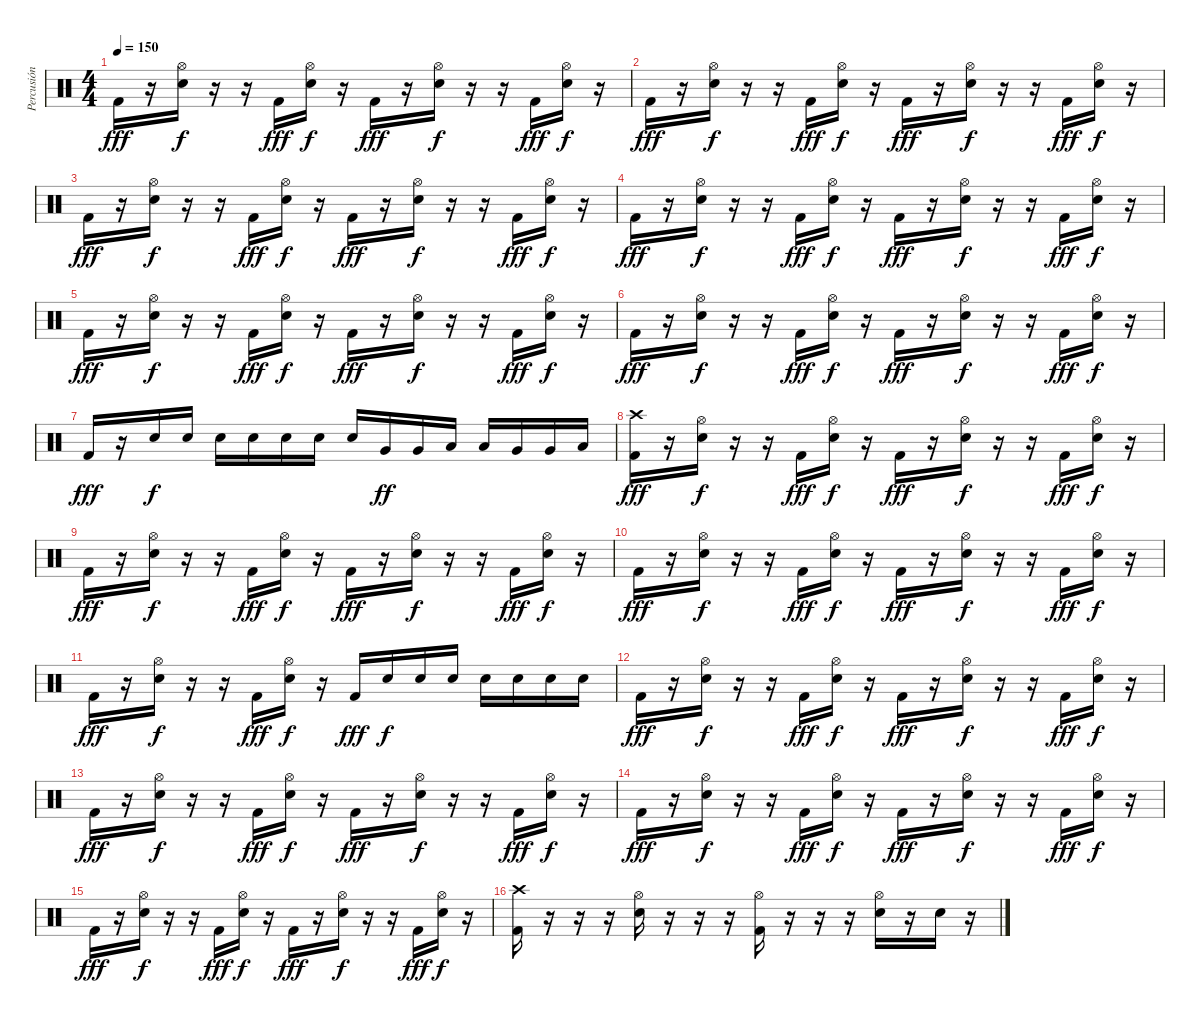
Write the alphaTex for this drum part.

\track ("Percusión" "Percusión") {instrument percussion}
\staff {score}
\articulation defaults
\ts (4 4)
\tempo 150
\clef neutral
\ks c "Kick (hit) 2".16{dy fff}
r.16 ("Electric Snare (hit)" "Hi-Hat (open)").16{dy f} r.16 r.16 "Kick (hit) 2".16{dy fff} ("Electric Snare (hit)" "Hi-Hat (open)").16{dy f} r.16 "Kick (hit) 2".16{dy fff} r.16 ("Electric Snare (hit)" "Hi-Hat (open)").16{dy f} r.16 r.16 "Kick (hit) 2".16{dy fff} ("Electric Snare (hit)" "Hi-Hat (open)").16{dy f} r.16 |
"Kick (hit) 2".16{dy fff} r.16 ("Electric Snare (hit)" "Hi-Hat (open)").16{dy f} r.16 r.16 "Kick (hit) 2".16{dy fff} ("Electric Snare (hit)" "Hi-Hat (open)").16{dy f} r.16 "Kick (hit) 2".16{dy fff} r.16 ("Electric Snare (hit)" "Hi-Hat (open)").16{dy f} r.16 r.16 "Kick (hit) 2".16{dy fff} ("Electric Snare (hit)" "Hi-Hat (open)").16{dy f} r.16 |
"Kick (hit) 2".16{dy fff} r.16 ("Electric Snare (hit)" "Hi-Hat (open)").16{dy f} r.16 r.16 "Kick (hit) 2".16{dy fff} ("Electric Snare (hit)" "Hi-Hat (open)").16{dy f} r.16 "Kick (hit) 2".16{dy fff} r.16 ("Electric Snare (hit)" "Hi-Hat (open)").16{dy f} r.16 r.16 "Kick (hit) 2".16{dy fff} ("Electric Snare (hit)" "Hi-Hat (open)").16{dy f} r.16 |
"Kick (hit) 2".16{dy fff} r.16 ("Electric Snare (hit)" "Hi-Hat (open)").16{dy f} r.16 r.16 "Kick (hit) 2".16{dy fff} ("Electric Snare (hit)" "Hi-Hat (open)").16{dy f} r.16 "Kick (hit) 2".16{dy fff} r.16 ("Electric Snare (hit)" "Hi-Hat (open)").16{dy f} r.16 r.16 "Kick (hit) 2".16{dy fff} ("Electric Snare (hit)" "Hi-Hat (open)").16{dy f} r.16 |
"Kick (hit) 2".16{dy fff} r.16 ("Electric Snare (hit)" "Hi-Hat (open)").16{dy f} r.16 r.16 "Kick (hit) 2".16{dy fff} ("Electric Snare (hit)" "Hi-Hat (open)").16{dy f} r.16 "Kick (hit) 2".16{dy fff} r.16 ("Electric Snare (hit)" "Hi-Hat (open)").16{dy f} r.16 r.16 "Kick (hit) 2".16{dy fff} ("Electric Snare (hit)" "Hi-Hat (open)").16{dy f} r.16 |
"Kick (hit) 2".16{dy fff} r.16 ("Electric Snare (hit)" "Hi-Hat (open)").16{dy f} r.16 r.16 "Kick (hit) 2".16{dy fff} ("Electric Snare (hit)" "Hi-Hat (open)").16{dy f} r.16 "Kick (hit) 2".16{dy fff} r.16 ("Electric Snare (hit)" "Hi-Hat (open)").16{dy f} r.16 r.16 "Kick (hit) 2".16{dy fff} ("Electric Snare (hit)" "Hi-Hat (open)").16{dy f} r.16 |
"Kick (hit) 2".16{dy fff} r.16 "Electric Snare (hit)".16{dy f} "Electric Snare (hit)".16 "Electric Snare (hit)".16 "Electric Snare (hit)".16 "Electric Snare (hit)".16 "Electric Snare (hit)".16 "Electric Snare (hit)".16 "Very Low Tom (hit)".16{dy ff} "Very Low Tom (hit)".16 "Low Floor Tom (hit)".16 "Low Floor Tom (hit)".16 "Very Low Tom (hit)".16 "Very Low Tom (hit)".16 "Low Floor Tom (hit)".16 |
("Kick (hit) 2" "Crash high (hit)").16{dy fff} r.16 ("Electric Snare (hit)" "Hi-Hat (open)").16{dy f} r.16 r.16 "Kick (hit) 2".16{dy fff} ("Electric Snare (hit)" "Hi-Hat (open)").16{dy f} r.16 "Kick (hit) 2".16{dy fff} r.16 ("Electric Snare (hit)" "Hi-Hat (open)").16{dy f} r.16 r.16 "Kick (hit) 2".16{dy fff} ("Electric Snare (hit)" "Hi-Hat (open)").16{dy f} r.16 |
"Kick (hit) 2".16{dy fff} r.16 ("Electric Snare (hit)" "Hi-Hat (open)").16{dy f} r.16 r.16 "Kick (hit) 2".16{dy fff} ("Electric Snare (hit)" "Hi-Hat (open)").16{dy f} r.16 "Kick (hit) 2".16{dy fff} r.16 ("Electric Snare (hit)" "Hi-Hat (open)").16{dy f} r.16 r.16 "Kick (hit) 2".16{dy fff} ("Electric Snare (hit)" "Hi-Hat (open)").16{dy f} r.16 |
"Kick (hit) 2".16{dy fff} r.16 ("Electric Snare (hit)" "Hi-Hat (open)").16{dy f} r.16 r.16 "Kick (hit) 2".16{dy fff} ("Electric Snare (hit)" "Hi-Hat (open)").16{dy f} r.16 "Kick (hit) 2".16{dy fff} r.16 ("Electric Snare (hit)" "Hi-Hat (open)").16{dy f} r.16 r.16 "Kick (hit) 2".16{dy fff} ("Electric Snare (hit)" "Hi-Hat (open)").16{dy f} r.16 |
"Kick (hit) 2".16{dy fff} r.16 ("Electric Snare (hit)" "Hi-Hat (open)").16{dy f} r.16 r.16 "Kick (hit) 2".16{dy fff} ("Electric Snare (hit)" "Hi-Hat (open)").16{dy f} r.16 "Kick (hit) 2".16{dy fff} "Electric Snare (hit)".16{dy f} "Electric Snare (hit)".16 "Electric Snare (hit)".16 "Electric Snare (hit)".16 "Electric Snare (hit)".16 "Electric Snare (hit)".16 "Electric Snare (hit)".16 |
"Kick (hit) 2".16{dy fff} r.16 ("Electric Snare (hit)" "Hi-Hat (open)").16{dy f} r.16 r.16 "Kick (hit) 2".16{dy fff} ("Electric Snare (hit)" "Hi-Hat (open)").16{dy f} r.16 "Kick (hit) 2".16{dy fff} r.16 ("Electric Snare (hit)" "Hi-Hat (open)").16{dy f} r.16 r.16 "Kick (hit) 2".16{dy fff} ("Electric Snare (hit)" "Hi-Hat (open)").16{dy f} r.16 |
"Kick (hit) 2".16{dy fff} r.16 ("Electric Snare (hit)" "Hi-Hat (open)").16{dy f} r.16 r.16 "Kick (hit) 2".16{dy fff} ("Electric Snare (hit)" "Hi-Hat (open)").16{dy f} r.16 "Kick (hit) 2".16{dy fff} r.16 ("Electric Snare (hit)" "Hi-Hat (open)").16{dy f} r.16 r.16 "Kick (hit) 2".16{dy fff} ("Electric Snare (hit)" "Hi-Hat (open)").16{dy f} r.16 |
"Kick (hit) 2".16{dy fff} r.16 ("Electric Snare (hit)" "Hi-Hat (open)").16{dy f} r.16 r.16 "Kick (hit) 2".16{dy fff} ("Electric Snare (hit)" "Hi-Hat (open)").16{dy f} r.16 "Kick (hit) 2".16{dy fff} r.16 ("Electric Snare (hit)" "Hi-Hat (open)").16{dy f} r.16 r.16 "Kick (hit) 2".16{dy fff} ("Electric Snare (hit)" "Hi-Hat (open)").16{dy f} r.16 |
"Kick (hit) 2".16{dy fff} r.16 ("Electric Snare (hit)" "Hi-Hat (open)").16{dy f} r.16 r.16 "Kick (hit) 2".16{dy fff} ("Electric Snare (hit)" "Hi-Hat (open)").16{dy f} r.16 "Kick (hit) 2".16{dy fff} r.16 ("Electric Snare (hit)" "Hi-Hat (open)").16{dy f} r.16 r.16 "Kick (hit) 2".16{dy fff} ("Electric Snare (hit)" "Hi-Hat (open)").16{dy f} r.16 |
("Kick (hit) 2" "Crash high (hit)").16 r.16 r.16 r.16 ("Electric Snare (hit)" "Hi-Hat (open)").16 r.16 r.16 r.16 ("Kick (hit) 2" "Hi-Hat (open)").16 r.16 r.16 r.16 ("Electric Snare (hit)" "Hi-Hat (open)").16 r.16 "Electric Snare (hit)".16 r.16
